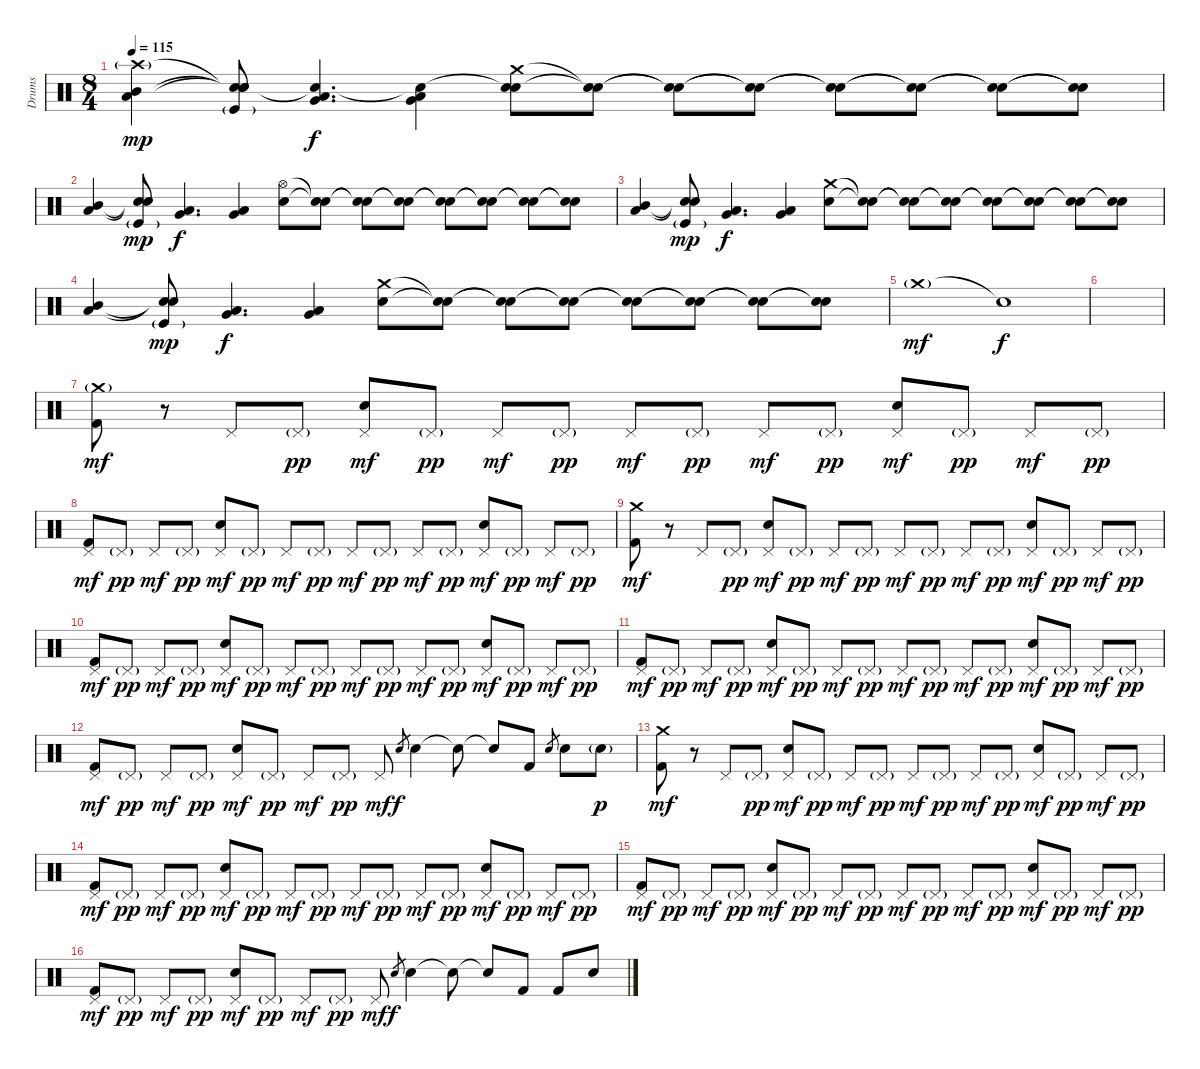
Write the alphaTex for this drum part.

\track ("Drums" "Drums") {instrument percussion}
\staff {score}
\articulation defaults
\ts (8 4)
\tempo 115
\clef neutral
\ks c
("Crash high (hit)"{g} "Low Tom (hit)" "Mid Tom (hit)").4{dy mp} ("Snare (hit)"{t} "Snare (hit)"{t} "Snare (hit)"{t} "Kick (hit)"{g}).8 ("Snare (hit)"{t} "Very Low Tom (hit)" "Low Tom (hit)").4{d dy f} ("Snare (hit)"{t} "Low Floor Tom (hit)" "Very Low Tom (hit)").4 ("Snare (hit)"{t} "Crash medium (hit)" "Electric Snare (hit)").8 ("Snare (hit)"{t} "Snare (hit)"{t}).8 ("Snare (hit)"{t} "Snare (hit)"{t}).8 ("Snare (hit)"{t} "Snare (hit)"{t}).8 ("Snare (hit)"{t} "Snare (hit)"{t}).8 ("Snare (hit)"{t} "Snare (hit)"{t}).8 ("Snare (hit)"{t} "Snare (hit)"{t}).8 ("Snare (hit)"{t} "Snare (hit)"{t}).8 |
("Low Tom (hit)" "Mid Tom (hit)").4 ("Snare (hit)"{t} "Snare (hit)"{t} "Kick (hit)"{g}).8{dy mp} ("Very Low Tom (hit)" "Low Tom (hit)").4{d dy f} ("Low Floor Tom (hit)" "Very Low Tom (hit)").4 ("Hi-Hat (open)" "Electric Snare (hit)").8 ("Snare (hit)"{t} "Snare (hit)"{t}).8 ("Snare (hit)"{t} "Snare (hit)"{t}).8 ("Snare (hit)"{t} "Snare (hit)"{t}).8 ("Snare (hit)"{t} "Snare (hit)"{t}).8 ("Snare (hit)"{t} "Snare (hit)"{t}).8 ("Snare (hit)"{t} "Snare (hit)"{t}).8 ("Snare (hit)"{t} "Snare (hit)"{t}).8 |
("Low Tom (hit)" "Mid Tom (hit)").4 ("Snare (hit)"{t} "Snare (hit)"{t} "Kick (hit)"{g}).8{dy mp} ("Very Low Tom (hit)" "Low Tom (hit)").4{d dy f} ("Low Floor Tom (hit)" "Very Low Tom (hit)").4 ("Crash medium (hit)" "Electric Snare (hit)").8 ("Snare (hit)"{t} "Snare (hit)"{t}).8 ("Snare (hit)"{t} "Snare (hit)"{t}).8 ("Snare (hit)"{t} "Snare (hit)"{t}).8 ("Snare (hit)"{t} "Snare (hit)"{t}).8 ("Snare (hit)"{t} "Snare (hit)"{t}).8 ("Snare (hit)"{t} "Snare (hit)"{t}).8 ("Snare (hit)"{t} "Snare (hit)"{t}).8 |
("Low Tom (hit)" "Mid Tom (hit)").4 ("Snare (hit)"{t} "Snare (hit)"{t} "Kick (hit)"{g}).8{dy mp} ("Very Low Tom (hit)" "Low Tom (hit)").4{d dy f} ("Low Floor Tom (hit)" "Very Low Tom (hit)").4 ("Crash medium (hit)" "Electric Snare (hit)").8 ("Snare (hit)"{t} "Snare (hit)"{t}).8 ("Snare (hit)"{t} "Snare (hit)"{t}).8 ("Snare (hit)"{t} "Snare (hit)"{t}).8 ("Snare (hit)"{t} "Snare (hit)"{t}).8 ("Snare (hit)"{t} "Snare (hit)"{t}).8 ("Snare (hit)"{t} "Snare (hit)"{t}).8 ("Snare (hit)"{t} "Snare (hit)"{t}).8 |
"Crash medium (hit)"{g}.1{dy mf} "Snare (hit)"{t}.1{dy f} |
|
("Crash medium (hit)"{g} "Kick (hit) 2").8{dy mf} r.8 "Pedal Hi-Hat (hit)".8 "Pedal Hi-Hat (hit)"{g}.8{dy pp} ("Pedal Hi-Hat (hit)" "Electric Snare (hit)").8{dy mf} "Pedal Hi-Hat (hit)"{g}.8{dy pp} "Pedal Hi-Hat (hit)".8{dy mf} "Pedal Hi-Hat (hit)"{g}.8{dy pp} "Pedal Hi-Hat (hit)".8{dy mf} "Pedal Hi-Hat (hit)"{g}.8{dy pp} "Pedal Hi-Hat (hit)".8{dy mf} "Pedal Hi-Hat (hit)"{g}.8{dy pp} ("Pedal Hi-Hat (hit)" "Electric Snare (hit)").8{dy mf} "Pedal Hi-Hat (hit)"{g}.8{dy pp} "Pedal Hi-Hat (hit)".8{dy mf} "Pedal Hi-Hat (hit)"{g}.8{dy pp} |
("Pedal Hi-Hat (hit)" "Kick (hit) 2").8{dy mf} "Pedal Hi-Hat (hit)"{g}.8{dy pp} "Pedal Hi-Hat (hit)".8{dy mf} "Pedal Hi-Hat (hit)"{g}.8{dy pp} ("Pedal Hi-Hat (hit)" "Electric Snare (hit)").8{dy mf} "Pedal Hi-Hat (hit)"{g}.8{dy pp} "Pedal Hi-Hat (hit)".8{dy mf} "Pedal Hi-Hat (hit)"{g}.8{dy pp} "Pedal Hi-Hat (hit)".8{dy mf} "Pedal Hi-Hat (hit)"{g}.8{dy pp} "Pedal Hi-Hat (hit)".8{dy mf} "Pedal Hi-Hat (hit)"{g}.8{dy pp} ("Pedal Hi-Hat (hit)" "Electric Snare (hit)").8{dy mf} "Pedal Hi-Hat (hit)"{g}.8{dy pp} "Pedal Hi-Hat (hit)".8{dy mf} "Pedal Hi-Hat (hit)"{g}.8{dy pp} |
("Crash medium (hit)" "Kick (hit) 2").8{dy mf} r.8 "Pedal Hi-Hat (hit)".8 "Pedal Hi-Hat (hit)"{g}.8{dy pp} ("Pedal Hi-Hat (hit)" "Electric Snare (hit)").8{dy mf} "Pedal Hi-Hat (hit)"{g}.8{dy pp} "Pedal Hi-Hat (hit)".8{dy mf} "Pedal Hi-Hat (hit)"{g}.8{dy pp} "Pedal Hi-Hat (hit)".8{dy mf} "Pedal Hi-Hat (hit)"{g}.8{dy pp} "Pedal Hi-Hat (hit)".8{dy mf} "Pedal Hi-Hat (hit)"{g}.8{dy pp} ("Pedal Hi-Hat (hit)" "Electric Snare (hit)").8{dy mf} "Pedal Hi-Hat (hit)"{g}.8{dy pp} "Pedal Hi-Hat (hit)".8{dy mf} "Pedal Hi-Hat (hit)"{g}.8{dy pp} |
("Pedal Hi-Hat (hit)" "Kick (hit) 2").8{dy mf} "Pedal Hi-Hat (hit)"{g}.8{dy pp} "Pedal Hi-Hat (hit)".8{dy mf} "Pedal Hi-Hat (hit)"{g}.8{dy pp} ("Pedal Hi-Hat (hit)" "Electric Snare (hit)").8{dy mf} "Pedal Hi-Hat (hit)"{g}.8{dy pp} "Pedal Hi-Hat (hit)".8{dy mf} "Pedal Hi-Hat (hit)"{g}.8{dy pp} "Pedal Hi-Hat (hit)".8{dy mf} "Pedal Hi-Hat (hit)"{g}.8{dy pp} "Pedal Hi-Hat (hit)".8{dy mf} "Pedal Hi-Hat (hit)"{g}.8{dy pp} ("Pedal Hi-Hat (hit)" "Electric Snare (hit)").8{dy mf} "Pedal Hi-Hat (hit)"{g}.8{dy pp} "Pedal Hi-Hat (hit)".8{dy mf} "Pedal Hi-Hat (hit)"{g}.8{dy pp} |
("Pedal Hi-Hat (hit)" "Kick (hit) 2").8{dy mf} "Pedal Hi-Hat (hit)"{g}.8{dy pp} "Pedal Hi-Hat (hit)".8{dy mf} "Pedal Hi-Hat (hit)"{g}.8{dy pp} ("Pedal Hi-Hat (hit)" "Electric Snare (hit)").8{dy mf} "Pedal Hi-Hat (hit)"{g}.8{dy pp} "Pedal Hi-Hat (hit)".8{dy mf} "Pedal Hi-Hat (hit)"{g}.8{dy pp} "Pedal Hi-Hat (hit)".8{dy mf} "Pedal Hi-Hat (hit)"{g}.8{dy pp} "Pedal Hi-Hat (hit)".8{dy mf} "Pedal Hi-Hat (hit)"{g}.8{dy pp} ("Pedal Hi-Hat (hit)" "Electric Snare (hit)").8{dy mf} "Pedal Hi-Hat (hit)"{g}.8{dy pp} "Pedal Hi-Hat (hit)".8{dy mf} "Pedal Hi-Hat (hit)"{g}.8{dy pp} |
("Pedal Hi-Hat (hit)" "Kick (hit) 2").8{dy mf} "Pedal Hi-Hat (hit)"{g}.8{dy pp} "Pedal Hi-Hat (hit)".8{dy mf} "Pedal Hi-Hat (hit)"{g}.8{dy pp} ("Pedal Hi-Hat (hit)" "Electric Snare (hit)").8{dy mf} "Pedal Hi-Hat (hit)"{g}.8{dy pp} "Pedal Hi-Hat (hit)".8{dy mf} "Pedal Hi-Hat (hit)"{g}.8{dy pp} "Pedal Hi-Hat (hit)".8{dy mf} "Electric Snare (hit)".8{gr dy f} "Electric Snare (hit)".4 "Snare (hit)"{t}.8 "Snare (hit)"{t}.8 "Kick (hit) 2".8 "Electric Snare (hit)".8{gr} "Electric Snare (hit)".8 "Electric Snare (hit)"{g}.8{dy p} |
("Crash medium (hit)" "Kick (hit) 2").8{dy mf} r.8 "Pedal Hi-Hat (hit)".8 "Pedal Hi-Hat (hit)"{g}.8{dy pp} ("Pedal Hi-Hat (hit)" "Electric Snare (hit)").8{dy mf} "Pedal Hi-Hat (hit)"{g}.8{dy pp} "Pedal Hi-Hat (hit)".8{dy mf} "Pedal Hi-Hat (hit)"{g}.8{dy pp} "Pedal Hi-Hat (hit)".8{dy mf} "Pedal Hi-Hat (hit)"{g}.8{dy pp} "Pedal Hi-Hat (hit)".8{dy mf} "Pedal Hi-Hat (hit)"{g}.8{dy pp} ("Pedal Hi-Hat (hit)" "Electric Snare (hit)").8{dy mf} "Pedal Hi-Hat (hit)"{g}.8{dy pp} "Pedal Hi-Hat (hit)".8{dy mf} "Pedal Hi-Hat (hit)"{g}.8{dy pp} |
("Pedal Hi-Hat (hit)" "Kick (hit) 2").8{dy mf} "Pedal Hi-Hat (hit)"{g}.8{dy pp} "Pedal Hi-Hat (hit)".8{dy mf} "Pedal Hi-Hat (hit)"{g}.8{dy pp} ("Pedal Hi-Hat (hit)" "Electric Snare (hit)").8{dy mf} "Pedal Hi-Hat (hit)"{g}.8{dy pp} "Pedal Hi-Hat (hit)".8{dy mf} "Pedal Hi-Hat (hit)"{g}.8{dy pp} "Pedal Hi-Hat (hit)".8{dy mf} "Pedal Hi-Hat (hit)"{g}.8{dy pp} "Pedal Hi-Hat (hit)".8{dy mf} "Pedal Hi-Hat (hit)"{g}.8{dy pp} ("Pedal Hi-Hat (hit)" "Electric Snare (hit)").8{dy mf} "Pedal Hi-Hat (hit)"{g}.8{dy pp} "Pedal Hi-Hat (hit)".8{dy mf} "Pedal Hi-Hat (hit)"{g}.8{dy pp} |
("Pedal Hi-Hat (hit)" "Kick (hit) 2").8{dy mf} "Pedal Hi-Hat (hit)"{g}.8{dy pp} "Pedal Hi-Hat (hit)".8{dy mf} "Pedal Hi-Hat (hit)"{g}.8{dy pp} ("Pedal Hi-Hat (hit)" "Electric Snare (hit)").8{dy mf} "Pedal Hi-Hat (hit)"{g}.8{dy pp} "Pedal Hi-Hat (hit)".8{dy mf} "Pedal Hi-Hat (hit)"{g}.8{dy pp} "Pedal Hi-Hat (hit)".8{dy mf} "Pedal Hi-Hat (hit)"{g}.8{dy pp} "Pedal Hi-Hat (hit)".8{dy mf} "Pedal Hi-Hat (hit)"{g}.8{dy pp} ("Pedal Hi-Hat (hit)" "Electric Snare (hit)").8{dy mf} "Pedal Hi-Hat (hit)"{g}.8{dy pp} "Pedal Hi-Hat (hit)".8{dy mf} "Pedal Hi-Hat (hit)"{g}.8{dy pp} |
("Pedal Hi-Hat (hit)" "Kick (hit) 2").8{dy mf} "Pedal Hi-Hat (hit)"{g}.8{dy pp} "Pedal Hi-Hat (hit)".8{dy mf} "Pedal Hi-Hat (hit)"{g}.8{dy pp} ("Pedal Hi-Hat (hit)" "Electric Snare (hit)").8{dy mf} "Pedal Hi-Hat (hit)"{g}.8{dy pp} "Pedal Hi-Hat (hit)".8{dy mf} "Pedal Hi-Hat (hit)"{g}.8{dy pp} "Pedal Hi-Hat (hit)".8{dy mf} "Electric Snare (hit)".8{gr dy f} "Electric Snare (hit)".4 "Snare (hit)"{t}.8 "Snare (hit)"{t}.8 "Kick (hit) 2".8 "Kick (hit) 2".8 "Electric Snare (hit)".8
